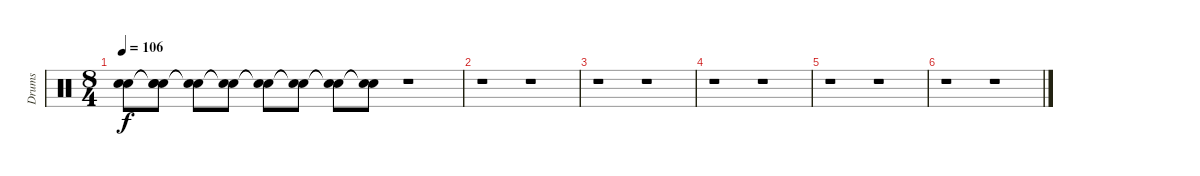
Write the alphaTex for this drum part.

\track ("Drums" "Drums") {instrument percussion}
\staff {score}
\articulation defaults
\ts (8 4)
\tempo 106
\clef neutral
\ks c
("Snare (hit)"{t} "Snare (hit)"{t}).8{dy f} ("Snare (hit)"{t} "Snare (hit)"{t} "Snare (hit)"{t}).8 ("Snare (hit)"{t} "Snare (hit)"{t}).8 ("Snare (hit)"{t} "Snare (hit)"{t}).8 ("Snare (hit)"{t} "Snare (hit)"{t}).8 ("Snare (hit)"{t} "Snare (hit)"{t}).8 ("Snare (hit)"{t} "Snare (hit)"{t}).8 ("Snare (hit)"{t} "Snare (hit)"{t}).8 r.1 |
r.1 r.1 |
r.1 r.1 |
r.1 r.1 |
r.1 r.1 |
r.1 r.1
